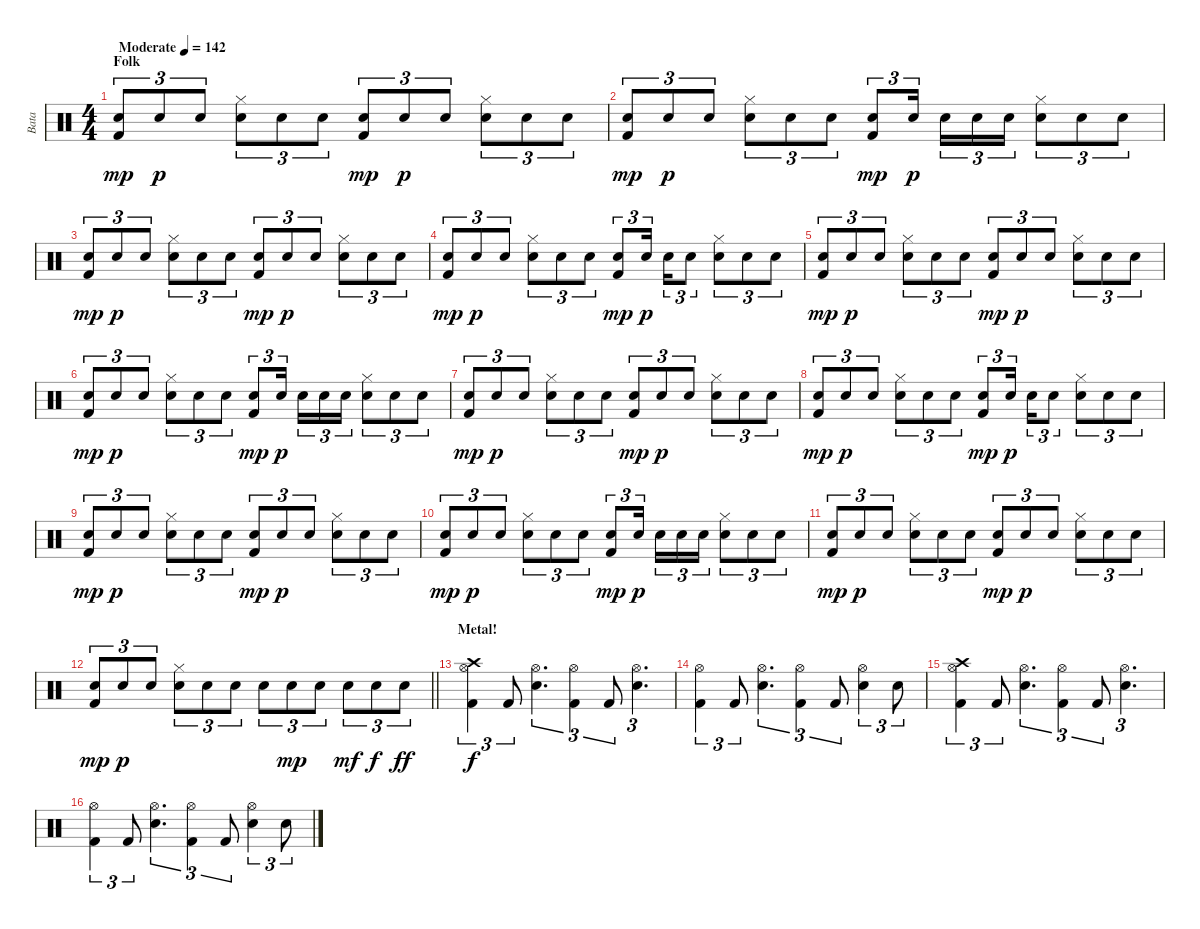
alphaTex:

\track ("Bata" "Bata") {instrument percussion}
\staff {score}
\articulation defaults
\ts (4 4)
\section ("" "Folk")
\tempo (142 "Moderate")
\clef neutral
\ks c
("Electric Snare (hit)" "Kick (hit) 2").8{tu (3 2) dy mp} "Electric Snare (hit)".8{tu (3 2) dy p} "Electric Snare (hit)".8{tu (3 2)} ("Hi-Hat (closed)" "Electric Snare (hit)").8{tu (3 2)} "Electric Snare (hit)".8{tu (3 2)} "Electric Snare (hit)".8{tu (3 2)} ("Electric Snare (hit)" "Kick (hit) 2").8{tu (3 2) dy mp} "Electric Snare (hit)".8{tu (3 2) dy p} "Electric Snare (hit)".8{tu (3 2)} ("Hi-Hat (closed)" "Electric Snare (hit)").8{tu (3 2)} "Electric Snare (hit)".8{tu (3 2)} "Electric Snare (hit)".8{tu (3 2)} |
("Electric Snare (hit)" "Kick (hit) 2").8{tu (3 2) dy mp} "Electric Snare (hit)".8{tu (3 2) dy p} "Electric Snare (hit)".8{tu (3 2)} ("Hi-Hat (closed)" "Electric Snare (hit)").8{tu (3 2)} "Electric Snare (hit)".8{tu (3 2)} "Electric Snare (hit)".8{tu (3 2)} ("Electric Snare (hit)" "Kick (hit) 2").8{tu (3 2) dy mp} "Electric Snare (hit)".16{tu (3 2) dy p beam splitsecondary} "Electric Snare (hit)".16{tu (3 2)} "Electric Snare (hit)".16{tu (3 2)} "Electric Snare (hit)".16{tu (3 2)} ("Hi-Hat (closed)" "Electric Snare (hit)").8{tu (3 2)} "Electric Snare (hit)".8{tu (3 2)} "Electric Snare (hit)".8{tu (3 2)} |
("Electric Snare (hit)" "Kick (hit) 2").8{tu (3 2) dy mp} "Electric Snare (hit)".8{tu (3 2) dy p} "Electric Snare (hit)".8{tu (3 2)} ("Hi-Hat (closed)" "Electric Snare (hit)").8{tu (3 2)} "Electric Snare (hit)".8{tu (3 2)} "Electric Snare (hit)".8{tu (3 2)} ("Electric Snare (hit)" "Kick (hit) 2").8{tu (3 2) dy mp} "Electric Snare (hit)".8{tu (3 2) dy p} "Electric Snare (hit)".8{tu (3 2)} ("Hi-Hat (closed)" "Electric Snare (hit)").8{tu (3 2)} "Electric Snare (hit)".8{tu (3 2)} "Electric Snare (hit)".8{tu (3 2)} |
("Electric Snare (hit)" "Kick (hit) 2").8{tu (3 2) dy mp} "Electric Snare (hit)".8{tu (3 2) dy p} "Electric Snare (hit)".8{tu (3 2)} ("Hi-Hat (closed)" "Electric Snare (hit)").8{tu (3 2)} "Electric Snare (hit)".8{tu (3 2)} "Electric Snare (hit)".8{tu (3 2)} ("Electric Snare (hit)" "Kick (hit) 2").8{tu (3 2) dy mp} "Electric Snare (hit)".16{tu (3 2) dy p beam splitsecondary} "Electric Snare (hit)".16{tu (3 2)} "Electric Snare (hit)".8{tu (3 2)} ("Hi-Hat (closed)" "Electric Snare (hit)").8{tu (3 2)} "Electric Snare (hit)".8{tu (3 2)} "Electric Snare (hit)".8{tu (3 2)} |
("Electric Snare (hit)" "Kick (hit) 2").8{tu (3 2) dy mp} "Electric Snare (hit)".8{tu (3 2) dy p} "Electric Snare (hit)".8{tu (3 2)} ("Hi-Hat (closed)" "Electric Snare (hit)").8{tu (3 2)} "Electric Snare (hit)".8{tu (3 2)} "Electric Snare (hit)".8{tu (3 2)} ("Electric Snare (hit)" "Kick (hit) 2").8{tu (3 2) dy mp} "Electric Snare (hit)".8{tu (3 2) dy p} "Electric Snare (hit)".8{tu (3 2)} ("Hi-Hat (closed)" "Electric Snare (hit)").8{tu (3 2)} "Electric Snare (hit)".8{tu (3 2)} "Electric Snare (hit)".8{tu (3 2)} |
("Electric Snare (hit)" "Kick (hit) 2").8{tu (3 2) dy mp} "Electric Snare (hit)".8{tu (3 2) dy p} "Electric Snare (hit)".8{tu (3 2)} ("Hi-Hat (closed)" "Electric Snare (hit)").8{tu (3 2)} "Electric Snare (hit)".8{tu (3 2)} "Electric Snare (hit)".8{tu (3 2)} ("Electric Snare (hit)" "Kick (hit) 2").8{tu (3 2) dy mp} "Electric Snare (hit)".16{tu (3 2) dy p beam splitsecondary} "Electric Snare (hit)".16{tu (3 2)} "Electric Snare (hit)".16{tu (3 2)} "Electric Snare (hit)".16{tu (3 2)} ("Hi-Hat (closed)" "Electric Snare (hit)").8{tu (3 2)} "Electric Snare (hit)".8{tu (3 2)} "Electric Snare (hit)".8{tu (3 2)} |
("Electric Snare (hit)" "Kick (hit) 2").8{tu (3 2) dy mp} "Electric Snare (hit)".8{tu (3 2) dy p} "Electric Snare (hit)".8{tu (3 2)} ("Hi-Hat (closed)" "Electric Snare (hit)").8{tu (3 2)} "Electric Snare (hit)".8{tu (3 2)} "Electric Snare (hit)".8{tu (3 2)} ("Electric Snare (hit)" "Kick (hit) 2").8{tu (3 2) dy mp} "Electric Snare (hit)".8{tu (3 2) dy p} "Electric Snare (hit)".8{tu (3 2)} ("Hi-Hat (closed)" "Electric Snare (hit)").8{tu (3 2)} "Electric Snare (hit)".8{tu (3 2)} "Electric Snare (hit)".8{tu (3 2)} |
("Electric Snare (hit)" "Kick (hit) 2").8{tu (3 2) dy mp} "Electric Snare (hit)".8{tu (3 2) dy p} "Electric Snare (hit)".8{tu (3 2)} ("Hi-Hat (closed)" "Electric Snare (hit)").8{tu (3 2)} "Electric Snare (hit)".8{tu (3 2)} "Electric Snare (hit)".8{tu (3 2)} ("Electric Snare (hit)" "Kick (hit) 2").8{tu (3 2) dy mp} "Electric Snare (hit)".16{tu (3 2) dy p beam splitsecondary} "Electric Snare (hit)".16{tu (3 2)} "Electric Snare (hit)".8{tu (3 2)} ("Hi-Hat (closed)" "Electric Snare (hit)").8{tu (3 2)} "Electric Snare (hit)".8{tu (3 2)} "Electric Snare (hit)".8{tu (3 2)} |
("Electric Snare (hit)" "Kick (hit) 2").8{tu (3 2) dy mp} "Electric Snare (hit)".8{tu (3 2) dy p} "Electric Snare (hit)".8{tu (3 2)} ("Hi-Hat (closed)" "Electric Snare (hit)").8{tu (3 2)} "Electric Snare (hit)".8{tu (3 2)} "Electric Snare (hit)".8{tu (3 2)} ("Electric Snare (hit)" "Kick (hit) 2").8{tu (3 2) dy mp} "Electric Snare (hit)".8{tu (3 2) dy p} "Electric Snare (hit)".8{tu (3 2)} ("Hi-Hat (closed)" "Electric Snare (hit)").8{tu (3 2)} "Electric Snare (hit)".8{tu (3 2)} "Electric Snare (hit)".8{tu (3 2)} |
("Electric Snare (hit)" "Kick (hit) 2").8{tu (3 2) dy mp} "Electric Snare (hit)".8{tu (3 2) dy p} "Electric Snare (hit)".8{tu (3 2)} ("Hi-Hat (closed)" "Electric Snare (hit)").8{tu (3 2)} "Electric Snare (hit)".8{tu (3 2)} "Electric Snare (hit)".8{tu (3 2)} ("Electric Snare (hit)" "Kick (hit) 2").8{tu (3 2) dy mp} "Electric Snare (hit)".16{tu (3 2) dy p beam splitsecondary} "Electric Snare (hit)".16{tu (3 2)} "Electric Snare (hit)".16{tu (3 2)} "Electric Snare (hit)".16{tu (3 2)} ("Hi-Hat (closed)" "Electric Snare (hit)").8{tu (3 2)} "Electric Snare (hit)".8{tu (3 2)} "Electric Snare (hit)".8{tu (3 2)} |
("Electric Snare (hit)" "Kick (hit) 2").8{tu (3 2) dy mp} "Electric Snare (hit)".8{tu (3 2) dy p} "Electric Snare (hit)".8{tu (3 2)} ("Hi-Hat (closed)" "Electric Snare (hit)").8{tu (3 2)} "Electric Snare (hit)".8{tu (3 2)} "Electric Snare (hit)".8{tu (3 2)} ("Electric Snare (hit)" "Kick (hit) 2").8{tu (3 2) dy mp} "Electric Snare (hit)".8{tu (3 2) dy p} "Electric Snare (hit)".8{tu (3 2)} ("Hi-Hat (closed)" "Electric Snare (hit)").8{tu (3 2)} "Electric Snare (hit)".8{tu (3 2)} "Electric Snare (hit)".8{tu (3 2)} |
\barLineRight lightlight
("Electric Snare (hit)" "Kick (hit) 2").8{tu (3 2) dy mp} "Electric Snare (hit)".8{tu (3 2) dy p} "Electric Snare (hit)".8{tu (3 2)} ("Hi-Hat (closed)" "Electric Snare (hit)").8{tu (3 2)} "Electric Snare (hit)".8{tu (3 2)} "Electric Snare (hit)".8{tu (3 2)} "Electric Snare (hit)".8{tu (3 2)} "Electric Snare (hit)".8{tu (3 2) dy mp} "Electric Snare (hit)".8{tu (3 2)} "Electric Snare (hit)".8{tu (3 2) dy mf} "Electric Snare (hit)".8{tu (3 2) dy f} "Electric Snare (hit)".8{tu (3 2) dy ff} |
\section ("" "Metal!")
("Crash high (hit)" "Hi-Hat (open)" "Kick (hit) 2").4{tu (3 2) dy f} "Kick (hit) 2".8{tu (3 2)} ("Hi-Hat (open)" "Electric Snare (hit)").4{d tu (3 2)} ("Hi-Hat (open)" "Kick (hit) 2").4{tu (3 2)} "Kick (hit) 2".8{tu (3 2)} ("Hi-Hat (open)" "Electric Snare (hit)").4{d tu (3 2)} |
("Hi-Hat (open)" "Kick (hit) 2").4{tu (3 2)} "Kick (hit) 2".8{tu (3 2)} ("Hi-Hat (open)" "Electric Snare (hit)").4{d tu (3 2)} ("Hi-Hat (open)" "Kick (hit) 2").4{tu (3 2)} "Kick (hit) 2".8{tu (3 2)} ("Hi-Hat (open)" "Electric Snare (hit)").4{tu (3 2)} "Electric Snare (hit)".8{tu (3 2)} |
("Crash high (hit)" "Hi-Hat (open)" "Kick (hit) 2").4{tu (3 2)} "Kick (hit) 2".8{tu (3 2)} ("Hi-Hat (open)" "Electric Snare (hit)").4{d tu (3 2)} ("Hi-Hat (open)" "Kick (hit) 2").4{tu (3 2)} "Kick (hit) 2".8{tu (3 2)} ("Hi-Hat (open)" "Electric Snare (hit)").4{d tu (3 2)} |
("Hi-Hat (open)" "Kick (hit) 2").4{tu (3 2)} "Kick (hit) 2".8{tu (3 2)} ("Hi-Hat (open)" "Electric Snare (hit)").4{d tu (3 2)} ("Hi-Hat (open)" "Kick (hit) 2").4{tu (3 2)} "Kick (hit) 2".8{tu (3 2)} ("Hi-Hat (open)" "Electric Snare (hit)").4{tu (3 2)} "Electric Snare (hit)".8{tu (3 2)}
